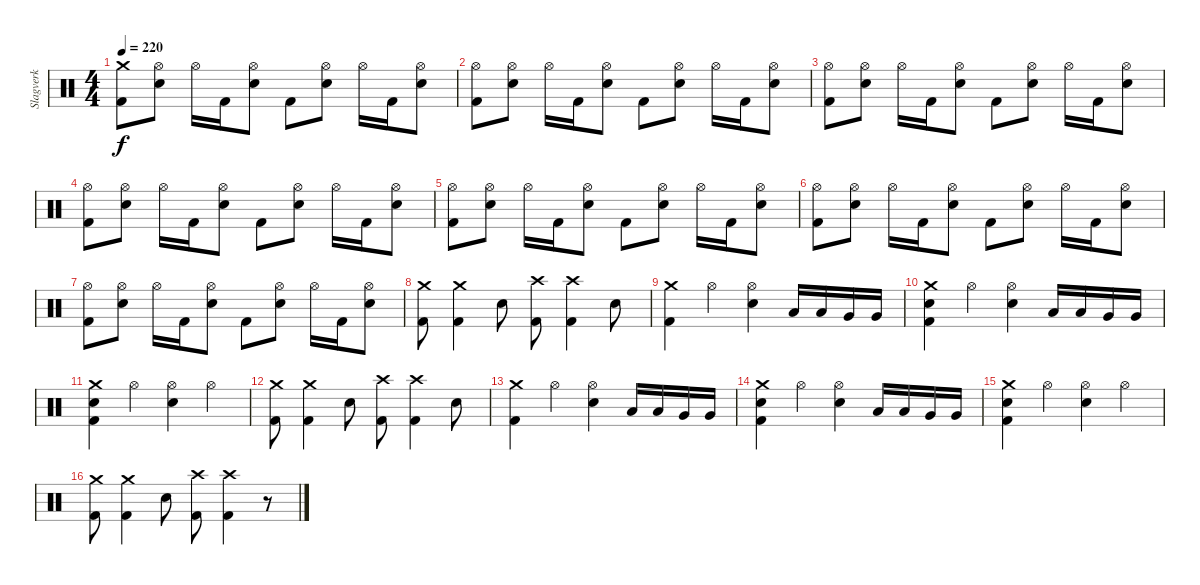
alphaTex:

\track ("Slagverk" "Slagverk") {instrument percussion}
\staff {score}
\articulation defaults
\ts (4 4)
\tempo 220
\clef neutral
\ks c
("Crash medium (hit)" "Kick (hit) 2").8{dy f} ("Electric Snare (hit)" "Hi-Hat (open)").8 "Hi-Hat (open)".16 "Kick (hit) 2".16 ("Electric Snare (hit)" "Hi-Hat (open)").8 "Kick (hit) 2".8 ("Electric Snare (hit)" "Hi-Hat (open)").8 "Hi-Hat (open)".16 "Kick (hit) 2".16 ("Electric Snare (hit)" "Hi-Hat (open)").8 |
("Hi-Hat (open)" "Kick (hit) 2").8 ("Electric Snare (hit)" "Hi-Hat (open)").8 "Hi-Hat (open)".16 "Kick (hit) 2".16 ("Electric Snare (hit)" "Hi-Hat (open)").8 "Kick (hit) 2".8 ("Electric Snare (hit)" "Hi-Hat (open)").8 "Hi-Hat (open)".16 "Kick (hit) 2".16 ("Electric Snare (hit)" "Hi-Hat (open)").8 |
("Hi-Hat (open)" "Kick (hit) 2").8 ("Electric Snare (hit)" "Hi-Hat (open)").8 "Hi-Hat (open)".16 "Kick (hit) 2".16 ("Electric Snare (hit)" "Hi-Hat (open)").8 "Kick (hit) 2".8 ("Electric Snare (hit)" "Hi-Hat (open)").8 "Hi-Hat (open)".16 "Kick (hit) 2".16 ("Electric Snare (hit)" "Hi-Hat (open)").8 |
("Hi-Hat (open)" "Kick (hit) 2").8 ("Electric Snare (hit)" "Hi-Hat (open)").8 "Hi-Hat (open)".16 "Kick (hit) 2".16 ("Electric Snare (hit)" "Hi-Hat (open)").8 "Kick (hit) 2".8 ("Electric Snare (hit)" "Hi-Hat (open)").8 "Hi-Hat (open)".16 "Kick (hit) 2".16 ("Electric Snare (hit)" "Hi-Hat (open)").8 |
("Hi-Hat (open)" "Kick (hit) 2").8 ("Electric Snare (hit)" "Hi-Hat (open)").8 "Hi-Hat (open)".16 "Kick (hit) 2".16 ("Electric Snare (hit)" "Hi-Hat (open)").8 "Kick (hit) 2".8 ("Electric Snare (hit)" "Hi-Hat (open)").8 "Hi-Hat (open)".16 "Kick (hit) 2".16 ("Electric Snare (hit)" "Hi-Hat (open)").8 |
("Hi-Hat (open)" "Kick (hit) 2").8 ("Electric Snare (hit)" "Hi-Hat (open)").8 "Hi-Hat (open)".16 "Kick (hit) 2".16 ("Electric Snare (hit)" "Hi-Hat (open)").8 "Kick (hit) 2".8 ("Electric Snare (hit)" "Hi-Hat (open)").8 "Hi-Hat (open)".16 "Kick (hit) 2".16 ("Electric Snare (hit)" "Hi-Hat (open)").8 |
("Hi-Hat (open)" "Kick (hit) 2").8 ("Electric Snare (hit)" "Hi-Hat (open)").8 "Hi-Hat (open)".16 "Kick (hit) 2".16 ("Electric Snare (hit)" "Hi-Hat (open)").8 "Kick (hit) 2".8 ("Electric Snare (hit)" "Hi-Hat (open)").8 "Hi-Hat (open)".16 "Kick (hit) 2".16 ("Electric Snare (hit)" "Hi-Hat (open)").8 |
("Crash medium (hit)" "Kick (hit) 2").8 ("Crash medium (hit)" "Kick (hit) 2").4 "Electric Snare (hit)".8 ("Crash high (hit)" "Kick (hit) 2").8 ("Crash high (hit)" "Kick (hit) 2").4 "Electric Snare (hit)".8 |
("Kick (hit) 2" "Crash medium (hit)").4 "Hi-Hat (open)".4 ("Electric Snare (hit)" "Hi-Hat (open)").4 "Low Tom (hit)".16 "Low Tom (hit)".16 "Very Low Tom (hit)".16 "Very Low Tom (hit)".16 |
("Kick (hit) 2" "Electric Snare (hit)" "Crash medium (hit)").4 "Hi-Hat (open)".4 ("Electric Snare (hit)" "Hi-Hat (open)").4 "Low Tom (hit)".16 "Low Tom (hit)".16 "Very Low Tom (hit)".16 "Very Low Tom (hit)".16 |
("Kick (hit) 2" "Electric Snare (hit)" "Crash medium (hit)").4 "Hi-Hat (open)".4 ("Electric Snare (hit)" "Hi-Hat (open)").4 "Hi-Hat (open)".4 |
("Crash medium (hit)" "Kick (hit) 2").8 ("Crash medium (hit)" "Kick (hit) 2").4 "Electric Snare (hit)".8 ("Crash high (hit)" "Kick (hit) 2").8 ("Crash high (hit)" "Kick (hit) 2").4 "Electric Snare (hit)".8 |
("Kick (hit) 2" "Crash medium (hit)").4 "Hi-Hat (open)".4 ("Electric Snare (hit)" "Hi-Hat (open)").4 "Low Tom (hit)".16 "Low Tom (hit)".16 "Very Low Tom (hit)".16 "Very Low Tom (hit)".16 |
("Kick (hit) 2" "Electric Snare (hit)" "Crash medium (hit)").4 "Hi-Hat (open)".4 ("Electric Snare (hit)" "Hi-Hat (open)").4 "Low Tom (hit)".16 "Low Tom (hit)".16 "Very Low Tom (hit)".16 "Very Low Tom (hit)".16 |
("Kick (hit) 2" "Electric Snare (hit)" "Crash medium (hit)").4 "Hi-Hat (open)".4 ("Electric Snare (hit)" "Hi-Hat (open)").4 "Hi-Hat (open)".4 |
("Crash medium (hit)" "Kick (hit) 2").8 ("Crash medium (hit)" "Kick (hit) 2").4 "Electric Snare (hit)".8 ("Crash high (hit)" "Kick (hit) 2").8 ("Crash high (hit)" "Kick (hit) 2").4 r.8
